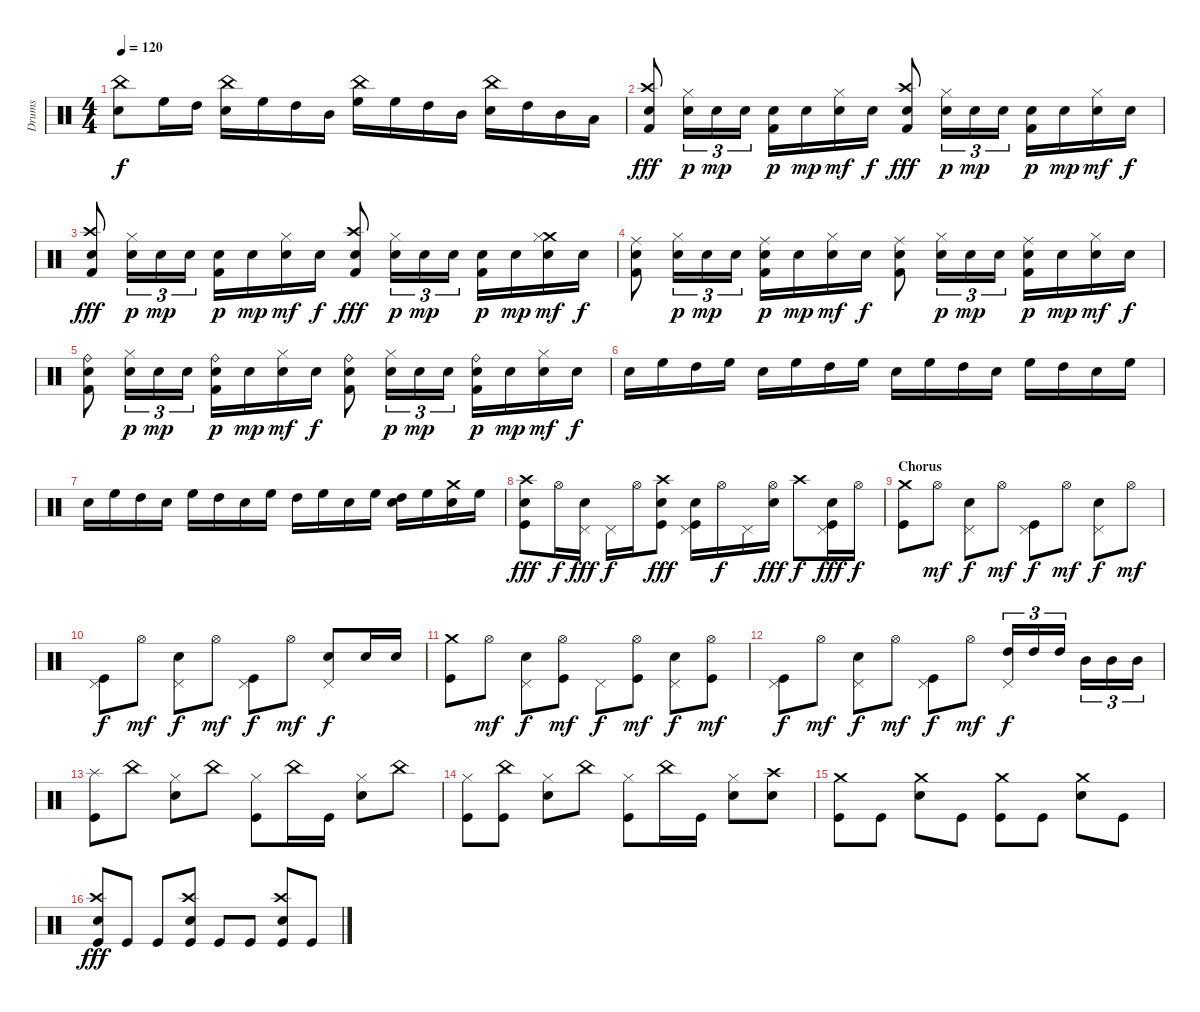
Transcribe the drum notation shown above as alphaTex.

\track ("Drums" "Drums") {instrument percussion}
\staff {score}
\articulation defaults
\ts (4 4)
\tempo 120
\clef neutral
\ks c
("China (hit)" "Electric Snare (hit)").8{dy f} "High Floor Tom (hit)".16 "High Tom (hit)".16 ("China (hit)" "Electric Snare (hit)").16 "High Floor Tom (hit)".16 "High Tom (hit)".16 "Mid Tom (hit)".16 ("China (hit)" "High Floor Tom (hit)").16 "High Floor Tom (hit)".16 "High Tom (hit)".16 "Mid Tom (hit)".16 ("China (hit)" "Electric Snare (hit)").16 "High Tom (hit)".16 "Mid Tom (hit)".16 "Low Tom (hit)".16 |
("Crash high (hit)" "Electric Snare (hit)" "Kick (hit) 2").8{dy fff} ("Hi-Hat (closed)" "Electric Snare (hit)").16{tu (3 2) dy p} "Electric Snare (hit)".16{tu (3 2) dy mp} "Electric Snare (hit)".16{tu (3 2)} ("Electric Snare (hit)" "Kick (hit) 2").16{dy p} "Electric Snare (hit)".16{dy mp} ("Hi-Hat (closed)" "Electric Snare (hit)").16{dy mf} "Electric Snare (hit)".16{dy f} ("Crash high (hit)" "Electric Snare (hit)" "Kick (hit) 2").8{dy fff} ("Hi-Hat (closed)" "Electric Snare (hit)").16{tu (3 2) dy p} "Electric Snare (hit)".16{tu (3 2) dy mp} "Electric Snare (hit)".16{tu (3 2)} ("Electric Snare (hit)" "Kick (hit) 2").16{dy p} "Electric Snare (hit)".16{dy mp} ("Hi-Hat (closed)" "Electric Snare (hit)").16{dy mf} "Electric Snare (hit)".16{dy f} |
("Crash high (hit)" "Electric Snare (hit)" "Kick (hit) 2").8{dy fff} ("Hi-Hat (closed)" "Electric Snare (hit)").16{tu (3 2) dy p} "Electric Snare (hit)".16{tu (3 2) dy mp} "Electric Snare (hit)".16{tu (3 2)} ("Electric Snare (hit)" "Kick (hit) 2").16{dy p} "Electric Snare (hit)".16{dy mp} ("Hi-Hat (closed)" "Electric Snare (hit)").16{dy mf} "Electric Snare (hit)".16{dy f} ("Crash high (hit)" "Electric Snare (hit)" "Kick (hit) 2").8{dy fff} ("Hi-Hat (closed)" "Electric Snare (hit)").16{tu (3 2) dy p} "Electric Snare (hit)".16{tu (3 2) dy mp} "Electric Snare (hit)".16{tu (3 2)} ("Electric Snare (hit)" "Kick (hit) 2").16{dy p} "Electric Snare (hit)".16{dy mp} ("Crash medium (hit)" "Hi-Hat (closed)" "Electric Snare (hit)").16{dy mf} "Electric Snare (hit)".16{dy f} |
("Ride (middle)" "Electric Snare (hit)" "Kick (hit) 2").8 ("Hi-Hat (closed)" "Electric Snare (hit)").16{tu (3 2) dy p} "Electric Snare (hit)".16{tu (3 2) dy mp} "Electric Snare (hit)".16{tu (3 2)} ("Ride (middle)" "Electric Snare (hit)" "Kick (hit) 2").16{dy p} "Electric Snare (hit)".16{dy mp} ("Hi-Hat (closed)" "Electric Snare (hit)").16{dy mf} "Electric Snare (hit)".16{dy f} ("Ride (middle)" "Electric Snare (hit)" "Kick (hit) 2").8 ("Hi-Hat (closed)" "Electric Snare (hit)").16{tu (3 2) dy p} "Electric Snare (hit)".16{tu (3 2) dy mp} "Electric Snare (hit)".16{tu (3 2)} ("Ride (middle)" "Electric Snare (hit)" "Kick (hit) 2").16{dy p} "Electric Snare (hit)".16{dy mp} ("Hi-Hat (closed)" "Electric Snare (hit)").16{dy mf} "Electric Snare (hit)".16{dy f} |
("Ride (bell)" "Electric Snare (hit)" "Kick (hit) 2").8 ("Hi-Hat (closed)" "Electric Snare (hit)").16{tu (3 2) dy p} "Electric Snare (hit)".16{tu (3 2) dy mp} "Electric Snare (hit)".16{tu (3 2)} ("Ride (bell)" "Electric Snare (hit)" "Kick (hit) 2").16{dy p} "Electric Snare (hit)".16{dy mp} ("Hi-Hat (closed)" "Electric Snare (hit)").16{dy mf} "Electric Snare (hit)".16{dy f} ("Ride (bell)" "Electric Snare (hit)" "Kick (hit) 2").8 ("Hi-Hat (closed)" "Electric Snare (hit)").16{tu (3 2) dy p} "Electric Snare (hit)".16{tu (3 2) dy mp} "Electric Snare (hit)".16{tu (3 2)} ("Ride (bell)" "Electric Snare (hit)" "Kick (hit) 2").16{dy p} "Electric Snare (hit)".16{dy mp} ("Hi-Hat (closed)" "Electric Snare (hit)").16{dy mf} "Electric Snare (hit)".16{dy f} |
"Electric Snare (hit)".16 "High Floor Tom (hit)".16 "High Tom (hit)".16 "High Floor Tom (hit)".16 "Electric Snare (hit)".16 "High Floor Tom (hit)".16 "High Tom (hit)".16 "High Floor Tom (hit)".16 "Electric Snare (hit)".16 "High Floor Tom (hit)".16 "High Tom (hit)".16 "Electric Snare (hit)".16 "High Floor Tom (hit)".16 "High Tom (hit)".16 "Electric Snare (hit)".16 "High Floor Tom (hit)".16 |
"Electric Snare (hit)".16 "High Floor Tom (hit)".16 "High Tom (hit)".16 "Electric Snare (hit)".16 "High Floor Tom (hit)".16 "High Tom (hit)".16 "Electric Snare (hit)".16 "High Floor Tom (hit)".16 "High Tom (hit)".16 "High Floor Tom (hit)".16 "Electric Snare (hit)".16 "High Floor Tom (hit)".16 ("Electric Snare (hit)" "High Tom (hit)").16 "High Floor Tom (hit)".16 ("Crash medium (hit)" "Electric Snare (hit)").16 "High Floor Tom (hit)".16 |
("Crash high (hit)" "Electric Snare (hit)" "Kick (hit)").8{dy fff} "Hi-Hat (open)".16{dy f} ("Pedal Hi-Hat (hit)" "Electric Snare (hit)").16{dy fff} "Pedal Hi-Hat (hit)".16{dy f} "Hi-Hat (open)".16 ("Crash high (hit)" "Electric Snare (hit)" "Kick (hit)").8{dy fff} ("Pedal Hi-Hat (hit)" "Electric Snare (hit)" "Kick (hit)").16 "Hi-Hat (open)".16{dy f} "Pedal Hi-Hat (hit)".16 ("Hi-Hat (open)" "Electric Snare (hit)").16{dy fff} "Crash high (hit)".8{dy f} ("Pedal Hi-Hat (hit)" "Electric Snare (hit)" "Kick (hit)").16{dy fff} "Hi-Hat (open)".16{dy f} |
\section ("" "Chorus")
("Crash medium (hit)" "Kick (hit)").8 "Hi-Hat (open)".8{dy mf} ("Pedal Hi-Hat (hit)" "Electric Snare (hit)").8{dy f} "Hi-Hat (open)".8{dy mf} ("Pedal Hi-Hat (hit)" "Kick (hit)").8{dy f} "Hi-Hat (open)".8{dy mf} ("Pedal Hi-Hat (hit)" "Electric Snare (hit)").8{dy f} "Hi-Hat (open)".8{dy mf} |
("Pedal Hi-Hat (hit)" "Kick (hit)").8{dy f} "Hi-Hat (open)".8{dy mf} ("Pedal Hi-Hat (hit)" "Electric Snare (hit)").8{dy f} "Hi-Hat (open)".8{dy mf} ("Pedal Hi-Hat (hit)" "Kick (hit)").8{dy f} "Hi-Hat (open)".8{dy mf} ("Pedal Hi-Hat (hit)" "Electric Snare (hit)").8{dy f} "Electric Snare (hit)".16 "Electric Snare (hit)".16 |
("Crash medium (hit)" "Kick (hit)").8 "Hi-Hat (open)".8{dy mf} ("Pedal Hi-Hat (hit)" "Electric Snare (hit)").8{dy f} ("Hi-Hat (open)" "Kick (hit)").8{dy mf} "Pedal Hi-Hat (hit)".8{dy f} ("Hi-Hat (open)" "Kick (hit)").8{dy mf} ("Pedal Hi-Hat (hit)" "Electric Snare (hit)").8{dy f} ("Hi-Hat (open)" "Kick (hit)").8{dy mf} |
("Pedal Hi-Hat (hit)" "Kick (hit)").8{dy f} "Hi-Hat (open)".8{dy mf} ("Pedal Hi-Hat (hit)" "Electric Snare (hit)").8{dy f} "Hi-Hat (open)".8{dy mf} ("Pedal Hi-Hat (hit)" "Kick (hit)").8{dy f} "Hi-Hat (open)".8{dy mf} ("Pedal Hi-Hat (hit)" "High Tom (hit)").16{tu (3 2) dy f} "High Tom (hit)".16{tu (3 2)} "High Tom (hit)".16{tu (3 2)} "Mid Tom (hit)".16{tu (3 2)} "Mid Tom (hit)".16{tu (3 2)} "Mid Tom (hit)".16{tu (3 2)} |
("Splash (hit)" "Kick (hit)").8 "China (hit)".8 ("Hi-Hat (closed)" "Electric Snare (hit)").8 "China (hit)".8 ("Hi-Hat (closed)" "Kick (hit)").8 "China (hit)".16 "Kick (hit)".16 ("Hi-Hat (closed)" "Electric Snare (hit)").8 "China (hit)".8 |
("Hi-Hat (closed)" "Kick (hit)").8 ("China (hit)" "Kick (hit)").8 ("Hi-Hat (closed)" "Electric Snare (hit)").8 "China (hit)".8 ("Hi-Hat (closed)" "Kick (hit)").8 "China (hit)".16 "Kick (hit)".16 ("Hi-Hat (closed)" "Electric Snare (hit)").8 ("Crash high (hit)" "Electric Snare (hit)").8 |
("Crash medium (hit)" "Kick (hit)").8 "Kick (hit)".8 ("Crash medium (hit)" "Electric Snare (hit)").8 "Kick (hit)".8 ("Crash medium (hit)" "Kick (hit)").8 "Kick (hit)".8 ("Crash medium (hit)" "Electric Snare (hit)").8 "Kick (hit)".8 |
("Crash high (hit)" "Electric Snare (hit)" "Kick (hit)").8{dy fff} "Kick (hit)".8 "Kick (hit)".8 ("Crash high (hit)" "Electric Snare (hit)" "Kick (hit)").8 "Kick (hit)".8 "Kick (hit)".8 ("Crash high (hit)" "Electric Snare (hit)" "Kick (hit)").8 "Kick (hit)".8
